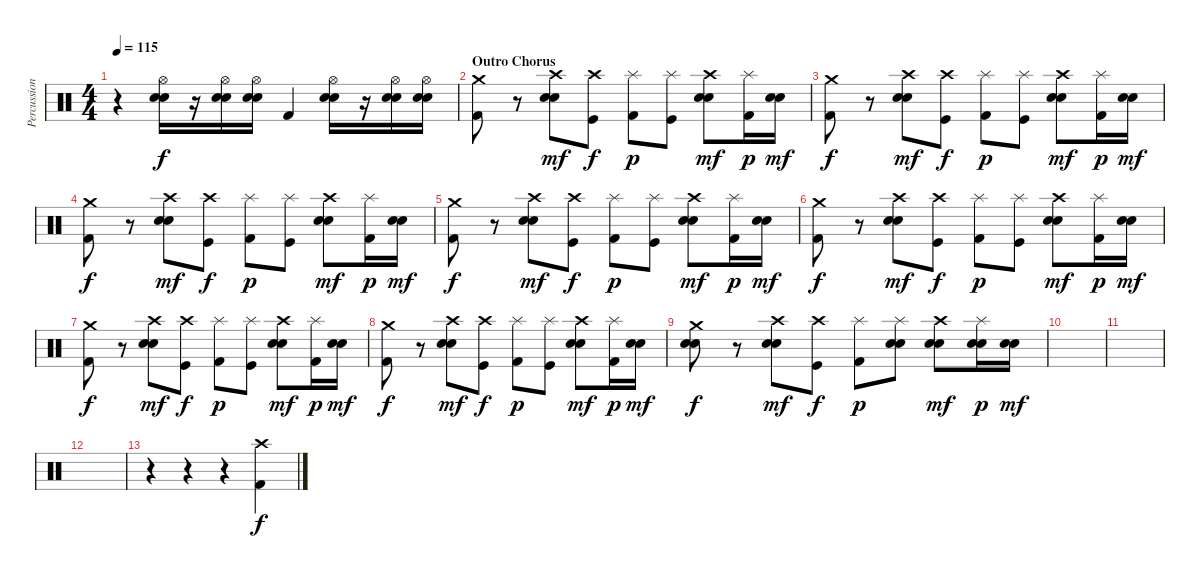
\track ("Percussion - Drums" "Percussion") {instrument percussion}
\staff {score}
\articulation defaults
\ts (4 4)
\tempo 115
\clef neutral
\ks c
r.4{dy f} ("Hi-Hat (open)" "Electric Snare (hit)" "Snare (hit) 2").16 r.16 ("Hi-Hat (open)" "Electric Snare (hit)" "Snare (hit) 2").16 ("Hi-Hat (open)" "Electric Snare (hit)" "Snare (hit) 2").16 "Kick (hit) 2".4 ("Hi-Hat (open)" "Electric Snare (hit)" "Snare (hit) 2").16 r.16 ("Hi-Hat (open)" "Electric Snare (hit)" "Snare (hit) 2").16 ("Hi-Hat (open)" "Electric Snare (hit)" "Snare (hit) 2").16 |
\section ("" "Outro Chorus")
("Crash medium (hit)" "Kick (hit) 2").8 r.8 ("Crash high (hit)" "Electric Snare (hit)" "Snare (hit) 2").8{dy mf} ("Crash high (hit)" "Kick (hit)").8{dy f} ("Splash (hit)" "Kick (hit) 2").8{dy p} ("Splash (hit)" "Kick (hit)").8 ("Crash high (hit)" "Electric Snare (hit)" "Snare (hit) 2").8{dy mf} ("Splash (hit)" "Kick (hit) 2").16{dy p} ("Electric Snare (hit)" "Snare (hit) 2").16{dy mf} |
("Crash medium (hit)" "Kick (hit) 2").8{dy f} r.8 ("Crash high (hit)" "Electric Snare (hit)" "Snare (hit) 2").8{dy mf} ("Crash high (hit)" "Kick (hit)").8{dy f} ("Splash (hit)" "Kick (hit) 2").8{dy p} ("Splash (hit)" "Kick (hit)").8 ("Crash high (hit)" "Electric Snare (hit)" "Snare (hit) 2").8{dy mf} ("Splash (hit)" "Kick (hit) 2").16{dy p} ("Electric Snare (hit)" "Snare (hit) 2").16{dy mf} |
("Crash medium (hit)" "Kick (hit) 2").8{dy f} r.8 ("Crash high (hit)" "Electric Snare (hit)" "Snare (hit) 2").8{dy mf} ("Crash high (hit)" "Kick (hit)").8{dy f} ("Splash (hit)" "Kick (hit) 2").8{dy p} ("Splash (hit)" "Kick (hit)").8 ("Crash high (hit)" "Electric Snare (hit)" "Snare (hit) 2").8{dy mf} ("Splash (hit)" "Kick (hit) 2").16{dy p} ("Electric Snare (hit)" "Snare (hit) 2").16{dy mf} |
("Crash medium (hit)" "Kick (hit) 2").8{dy f} r.8 ("Crash high (hit)" "Electric Snare (hit)" "Snare (hit) 2").8{dy mf} ("Crash high (hit)" "Kick (hit)").8{dy f} ("Splash (hit)" "Kick (hit) 2").8{dy p} ("Splash (hit)" "Kick (hit)").8 ("Crash high (hit)" "Electric Snare (hit)" "Snare (hit) 2").8{dy mf} ("Splash (hit)" "Kick (hit) 2").16{dy p} ("Electric Snare (hit)" "Snare (hit) 2").16{dy mf} |
("Crash medium (hit)" "Kick (hit) 2").8{dy f} r.8 ("Crash high (hit)" "Electric Snare (hit)" "Snare (hit) 2").8{dy mf} ("Crash high (hit)" "Kick (hit)").8{dy f} ("Splash (hit)" "Kick (hit) 2").8{dy p} ("Splash (hit)" "Kick (hit)").8 ("Crash high (hit)" "Electric Snare (hit)" "Snare (hit) 2").8{dy mf} ("Splash (hit)" "Kick (hit) 2").16{dy p} ("Electric Snare (hit)" "Snare (hit) 2").16{dy mf} |
("Crash medium (hit)" "Kick (hit) 2").8{dy f} r.8 ("Crash high (hit)" "Electric Snare (hit)" "Snare (hit) 2").8{dy mf} ("Crash high (hit)" "Kick (hit)").8{dy f} ("Splash (hit)" "Kick (hit) 2").8{dy p} ("Splash (hit)" "Kick (hit)").8 ("Crash high (hit)" "Electric Snare (hit)" "Snare (hit) 2").8{dy mf} ("Splash (hit)" "Kick (hit) 2").16{dy p} ("Electric Snare (hit)" "Snare (hit) 2").16{dy mf} |
("Crash medium (hit)" "Kick (hit) 2").8{dy f} r.8 ("Crash high (hit)" "Electric Snare (hit)" "Snare (hit) 2").8{dy mf} ("Crash high (hit)" "Kick (hit)").8{dy f} ("Splash (hit)" "Kick (hit) 2").8{dy p} ("Splash (hit)" "Kick (hit)").8 ("Crash high (hit)" "Electric Snare (hit)" "Snare (hit) 2").8{dy mf} ("Splash (hit)" "Kick (hit) 2").16{dy p} ("Electric Snare (hit)" "Snare (hit) 2").16{dy mf} |
("Crash medium (hit)" "Electric Snare (hit)" "Snare (hit) 2").8{dy f} r.8 ("Crash high (hit)" "Electric Snare (hit)" "Snare (hit) 2").8{dy mf} ("Crash high (hit)" "Kick (hit)").8{dy f} ("Splash (hit)" "Kick (hit) 2").8{dy p} ("Splash (hit)" "Electric Snare (hit)" "Snare (hit) 2").8 ("Crash high (hit)" "Electric Snare (hit)" "Snare (hit) 2").8{dy mf} ("Splash (hit)" "Electric Snare (hit)" "Snare (hit) 2").16{dy p} ("Electric Snare (hit)" "Snare (hit) 2").16{dy mf} |
|
|
|
r.4 r.4 r.4 ("Crash high (hit)" "Kick (hit) 2").4{dy f}
